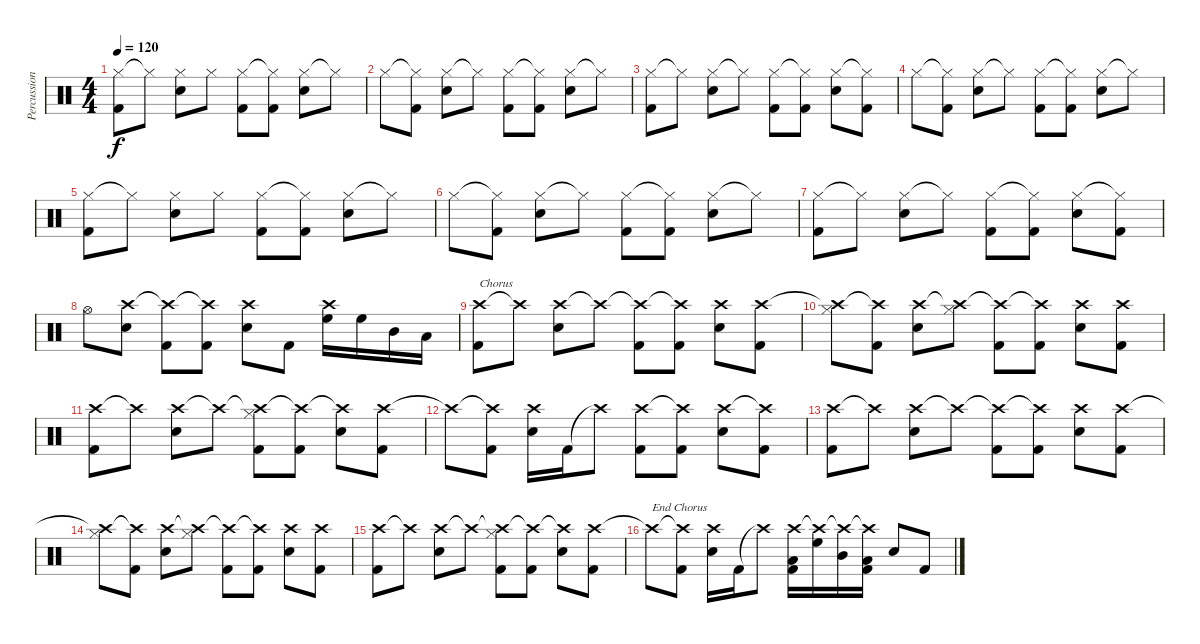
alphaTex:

\track ("Percussion" "Percussion") {instrument percussion}
\staff {score}
\articulation defaults
\ts (4 4)
\tempo 120
\clef neutral
\ks c
("Hi-Hat (closed)" "Kick (hit) 2").8{dy f} "Hi-Hat (closed)"{t}.8 ("Hi-Hat (closed)" "Electric Snare (hit)").8 "Hi-Hat (closed)".8 ("Hi-Hat (closed)" "Kick (hit) 2").8 ("Hi-Hat (closed)"{t} "Kick (hit) 2").8 ("Hi-Hat (closed)" "Electric Snare (hit)").8 "Hi-Hat (closed)"{t}.8 |
"Hi-Hat (closed)".8 ("Hi-Hat (closed)"{t} "Kick (hit) 2").8 ("Hi-Hat (closed)" "Electric Snare (hit)").8 "Hi-Hat (closed)"{t}.8 ("Hi-Hat (closed)" "Kick (hit) 2").8 ("Hi-Hat (closed)"{t} "Kick (hit) 2").8 ("Hi-Hat (closed)" "Electric Snare (hit)").8 "Hi-Hat (closed)"{t}.8 |
("Hi-Hat (closed)" "Kick (hit) 2").8 "Hi-Hat (closed)"{t}.8 ("Hi-Hat (closed)" "Electric Snare (hit)").8 "Hi-Hat (closed)"{t}.8 ("Hi-Hat (closed)" "Kick (hit) 2").8 ("Hi-Hat (closed)"{t} "Kick (hit) 2").8 ("Hi-Hat (closed)" "Electric Snare (hit)").8 ("Hi-Hat (closed)"{t} "Kick (hit) 2").8 |
"Hi-Hat (closed)".8 ("Hi-Hat (closed)"{t} "Kick (hit) 2").8 ("Hi-Hat (closed)" "Electric Snare (hit)").8 "Hi-Hat (closed)"{t}.8 ("Hi-Hat (closed)" "Kick (hit) 2").8 ("Hi-Hat (closed)"{t} "Kick (hit) 2").8 ("Hi-Hat (closed)" "Electric Snare (hit)").8 "Hi-Hat (closed)"{t}.8 |
("Hi-Hat (closed)" "Kick (hit) 2").8 "Hi-Hat (closed)"{t}.8 ("Hi-Hat (closed)" "Electric Snare (hit)").8 "Hi-Hat (closed)".8 ("Hi-Hat (closed)" "Kick (hit) 2").8 ("Hi-Hat (closed)"{t} "Kick (hit) 2").8 ("Hi-Hat (closed)" "Electric Snare (hit)").8 "Hi-Hat (closed)"{t}.8 |
"Hi-Hat (closed)".8 ("Hi-Hat (closed)"{t} "Kick (hit) 2").8 ("Hi-Hat (closed)" "Electric Snare (hit)").8 "Hi-Hat (closed)"{t}.8 ("Hi-Hat (closed)" "Kick (hit) 2").8 ("Hi-Hat (closed)"{t} "Kick (hit) 2").8 ("Hi-Hat (closed)" "Electric Snare (hit)").8 "Hi-Hat (closed)"{t}.8 |
("Hi-Hat (closed)" "Kick (hit) 2").8 "Hi-Hat (closed)"{t}.8 ("Hi-Hat (closed)" "Electric Snare (hit)").8 "Hi-Hat (closed)"{t}.8 ("Hi-Hat (closed)" "Kick (hit) 2").8 ("Hi-Hat (closed)"{t} "Kick (hit) 2").8 ("Hi-Hat (closed)" "Electric Snare (hit)").8 ("Hi-Hat (closed)"{t} "Kick (hit) 2").8 |
"Hi-Hat (open)".8 ("Crash high (hit)" "Electric Snare (hit)").8 ("Crash high (hit)"{t} "Kick (hit) 2").8 ("Crash high (hit)"{t} "Kick (hit) 2").8 ("Crash high (hit)" "Electric Snare (hit)").8 "Kick (hit) 2".8 ("Crash high (hit)" "High Floor Tom (hit)").16 "High Floor Tom (hit)".16 "Mid Tom (hit)".16 "Low Floor Tom (hit)".16 |
("Crash high (hit)" "Kick (hit) 2").8{txt "Chorus"} "Crash high (hit)"{t}.8 ("Crash high (hit)" "Electric Snare (hit)").8 "Crash high (hit)"{t}.8 ("Crash high (hit)"{t} "Kick (hit) 2").8 ("Crash high (hit)"{t} "Kick (hit) 2").8 ("Crash high (hit)" "Electric Snare (hit)").8 ("Crash high (hit)" "Kick (hit) 2").8 |
("Crash high (hit)"{t} "Hi-Hat (closed)").8 ("Crash high (hit)"{t} "Kick (hit) 2").8 ("Crash high (hit)" "Electric Snare (hit)").8 ("Crash high (hit)"{t} "Hi-Hat (closed)").8 ("Crash high (hit)"{t} "Kick (hit) 2").8 ("Crash high (hit)"{t} "Kick (hit) 2").8 ("Crash high (hit)" "Electric Snare (hit)").8 ("Crash high (hit)" "Kick (hit) 2").8 |
("Crash high (hit)" "Kick (hit) 2").8 "Crash high (hit)"{t}.8 ("Crash high (hit)" "Electric Snare (hit)").8 "Crash high (hit)"{t}.8 ("Crash high (hit)"{t} "Hi-Hat (closed)" "Kick (hit) 2").8 ("Crash high (hit)"{t} "Kick (hit) 2").8 ("Crash high (hit)"{t} "Electric Snare (hit)").8 ("Crash high (hit)" "Kick (hit) 2").8 |
"Crash high (hit)"{t}.8 ("Crash high (hit)"{t} "Kick (hit) 2").8 ("Crash high (hit)" "Electric Snare (hit)").16 "Kick (hit) 2".16 "Crash high (hit)"{t}.8 ("Crash high (hit)" "Kick (hit) 2").8 ("Crash high (hit)"{t} "Kick (hit) 2").8 ("Crash high (hit)" "Electric Snare (hit)").8 ("Crash high (hit)"{t} "Kick (hit) 2").8 |
("Crash high (hit)" "Kick (hit) 2").8 "Crash high (hit)"{t}.8 ("Crash high (hit)" "Electric Snare (hit)").8 "Crash high (hit)"{t}.8 ("Crash high (hit)"{t} "Kick (hit) 2").8 ("Crash high (hit)"{t} "Kick (hit) 2").8 ("Crash high (hit)" "Electric Snare (hit)").8 ("Crash high (hit)" "Kick (hit) 2").8 |
("Crash high (hit)"{t} "Hi-Hat (closed)").8 ("Crash high (hit)"{t} "Kick (hit) 2").8 ("Crash high (hit)" "Electric Snare (hit)").8 ("Crash high (hit)"{t} "Hi-Hat (closed)").8 ("Crash high (hit)"{t} "Kick (hit) 2").8 ("Crash high (hit)"{t} "Kick (hit) 2").8 ("Crash high (hit)" "Electric Snare (hit)").8 ("Crash high (hit)" "Kick (hit) 2").8 |
("Crash high (hit)" "Kick (hit) 2").8 "Crash high (hit)"{t}.8 ("Crash high (hit)" "Electric Snare (hit)").8 "Crash high (hit)"{t}.8 ("Crash high (hit)"{t} "Hi-Hat (closed)" "Kick (hit) 2").8 ("Crash high (hit)"{t} "Kick (hit) 2").8 ("Crash high (hit)"{t} "Electric Snare (hit)").8 ("Crash high (hit)" "Kick (hit) 2").8 |
"Crash high (hit)"{t}.8{txt "End Chorus"} ("Crash high (hit)"{t} "Kick (hit) 2").8 ("Crash high (hit)" "Electric Snare (hit)").16 "Kick (hit) 2".16 "Crash high (hit)"{t}.8 ("Crash high (hit)" "Low Floor Tom (hit)" "Kick (hit) 2").16 ("Crash high (hit)"{t} "High Floor Tom (hit)").16 ("Crash high (hit)"{t} "Mid Tom (hit)").16 ("Crash high (hit)"{t} "Low Floor Tom (hit)" "Kick (hit) 2").16 "Electric Snare (hit)".8 "Kick (hit) 2".8
